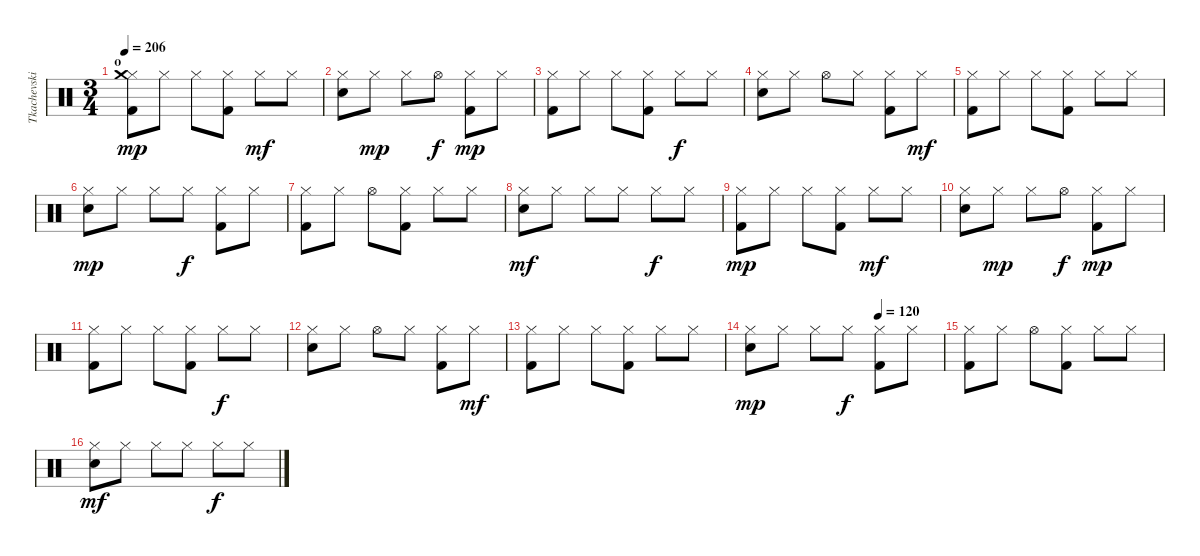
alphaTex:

\track ("Tkachevskiy A" "Tkachevski") {instrument percussion}
\staff {score}
\articulation defaults
\ts (3 4)
\section ("" "o")
\tempo 206
\clef neutral
\ks c
("Hi-Hat (closed)" "Crash medium (hit)" "Kick (hit) 2").8{dy mp} "Hi-Hat (closed)".8 "Hi-Hat (closed)".8 ("Hi-Hat (closed)" "Kick (hit) 2").8 "Hi-Hat (closed)".8{dy mf} "Hi-Hat (closed)".8 |
("Hi-Hat (closed)" "Snare (hit) 2").8 "Hi-Hat (closed)".8{dy mp} "Hi-Hat (closed)".8 "Hi-Hat (open)".8{dy f} ("Hi-Hat (closed)" "Kick (hit) 2").8{dy mp} "Hi-Hat (closed)".8 |
("Hi-Hat (closed)" "Kick (hit) 2").8 "Hi-Hat (closed)".8 "Hi-Hat (closed)".8 ("Hi-Hat (closed)" "Kick (hit) 2").8 "Hi-Hat (closed)".8{dy f} "Hi-Hat (closed)".8 |
("Hi-Hat (closed)" "Snare (hit) 2").8 "Hi-Hat (closed)".8 "Hi-Hat (open)".8 "Hi-Hat (closed)".8 ("Hi-Hat (closed)" "Kick (hit) 2").8 "Hi-Hat (closed)".8{dy mf} |
("Hi-Hat (closed)" "Kick (hit) 2").8 "Hi-Hat (closed)".8 "Hi-Hat (closed)".8 ("Hi-Hat (closed)" "Kick (hit) 2").8 "Hi-Hat (closed)".8 "Hi-Hat (closed)".8 |
("Hi-Hat (closed)" "Snare (hit) 2").8{dy mp} "Hi-Hat (closed)".8 "Hi-Hat (closed)".8 "Hi-Hat (closed)".8{dy f} ("Hi-Hat (closed)" "Kick (hit) 2").8 "Hi-Hat (closed)".8 |
("Hi-Hat (closed)" "Kick (hit) 2").8 "Hi-Hat (closed)".8 "Hi-Hat (open)".8 ("Hi-Hat (closed)" "Kick (hit) 2").8 "Hi-Hat (closed)".8 "Hi-Hat (closed)".8 |
("Hi-Hat (closed)" "Snare (hit) 2").8{dy mf} "Hi-Hat (closed)".8 "Hi-Hat (closed)".8 "Hi-Hat (closed)".8 "Hi-Hat (closed)".8{dy f} "Hi-Hat (closed)".8 |
("Hi-Hat (closed)" "Kick (hit) 2").8{dy mp} "Hi-Hat (closed)".8 "Hi-Hat (closed)".8 ("Hi-Hat (closed)" "Kick (hit) 2").8 "Hi-Hat (closed)".8{dy mf} "Hi-Hat (closed)".8 |
("Hi-Hat (closed)" "Snare (hit) 2").8 "Hi-Hat (closed)".8{dy mp} "Hi-Hat (closed)".8 "Hi-Hat (open)".8{dy f} ("Hi-Hat (closed)" "Kick (hit) 2").8{dy mp} "Hi-Hat (closed)".8 |
("Hi-Hat (closed)" "Kick (hit) 2").8 "Hi-Hat (closed)".8 "Hi-Hat (closed)".8 ("Hi-Hat (closed)" "Kick (hit) 2").8 "Hi-Hat (closed)".8{dy f} "Hi-Hat (closed)".8 |
("Hi-Hat (closed)" "Snare (hit) 2").8 "Hi-Hat (closed)".8 "Hi-Hat (open)".8 "Hi-Hat (closed)".8 ("Hi-Hat (closed)" "Kick (hit) 2").8 "Hi-Hat (closed)".8{dy mf} |
("Hi-Hat (closed)" "Kick (hit) 2").8 "Hi-Hat (closed)".8 "Hi-Hat (closed)".8 ("Hi-Hat (closed)" "Kick (hit) 2").8 "Hi-Hat (closed)".8 "Hi-Hat (closed)".8 |
\tempo (120 0.6666666666666666)
("Hi-Hat (closed)" "Snare (hit) 2").8{dy mp} "Hi-Hat (closed)".8 "Hi-Hat (closed)".8 "Hi-Hat (closed)".8{dy f} ("Hi-Hat (closed)" "Kick (hit) 2").8 "Hi-Hat (closed)".8 |
("Hi-Hat (closed)" "Kick (hit) 2").8 "Hi-Hat (closed)".8 "Hi-Hat (open)".8 ("Hi-Hat (closed)" "Kick (hit) 2").8 "Hi-Hat (closed)".8 "Hi-Hat (closed)".8 |
("Hi-Hat (closed)" "Snare (hit) 2").8{dy mf} "Hi-Hat (closed)".8 "Hi-Hat (closed)".8 "Hi-Hat (closed)".8 "Hi-Hat (closed)".8{dy f} "Hi-Hat (closed)".8
